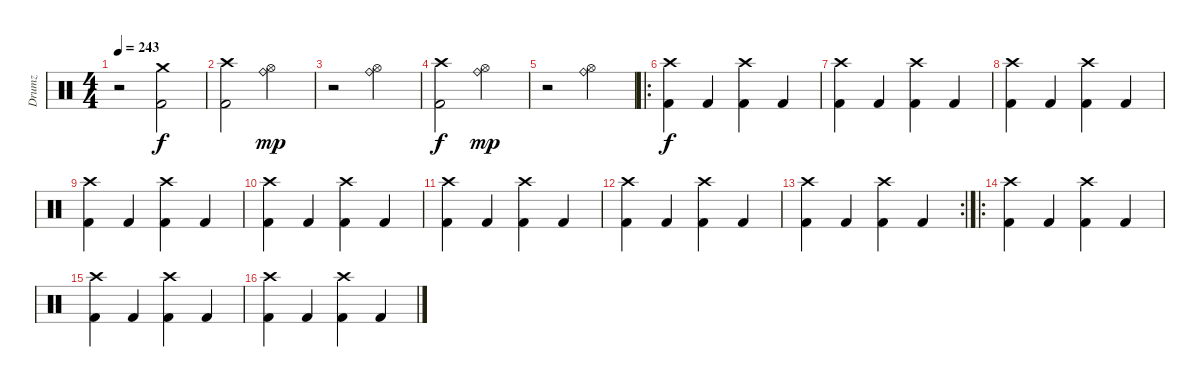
\track ("Drumz" "Drumz") {instrument percussion}
\staff {score}
\articulation defaults
\ts (4 4)
\tempo 243
\clef neutral
\ks c
r.2{dy mp} ("Crash medium (hit)" "Kick (hit) 2").2{dy f} |
("Crash high (hit)" "Kick (hit) 2").2 ("Ride (bell)" "Hi-Hat (open)").2{dy mp} |
r.2 ("Ride (bell)" "Hi-Hat (open)").2 |
("Crash high (hit)" "Kick (hit) 2").2{dy f} ("Ride (bell)" "Hi-Hat (open)").2{dy mp} |
r.2 ("Ride (bell)" "Hi-Hat (open)").2 |
\ro
("Crash high (hit)" "Kick (hit) 2").4{dy f} "Kick (hit) 2".4 ("Crash high (hit)" "Kick (hit) 2").4 "Kick (hit) 2".4 |
("Crash high (hit)" "Kick (hit) 2").4 "Kick (hit) 2".4 ("Crash high (hit)" "Kick (hit) 2").4 "Kick (hit) 2".4 |
("Crash high (hit)" "Kick (hit) 2").4 "Kick (hit) 2".4 ("Crash high (hit)" "Kick (hit) 2").4 "Kick (hit) 2".4 |
("Crash high (hit)" "Kick (hit) 2").4 "Kick (hit) 2".4 ("Crash high (hit)" "Kick (hit) 2").4 "Kick (hit) 2".4 |
("Crash high (hit)" "Kick (hit) 2").4 "Kick (hit) 2".4 ("Crash high (hit)" "Kick (hit) 2").4 "Kick (hit) 2".4 |
("Crash high (hit)" "Kick (hit) 2").4 "Kick (hit) 2".4 ("Crash high (hit)" "Kick (hit) 2").4 "Kick (hit) 2".4 |
("Crash high (hit)" "Kick (hit) 2").4 "Kick (hit) 2".4 ("Crash high (hit)" "Kick (hit) 2").4 "Kick (hit) 2".4 |
\rc 2
("Crash high (hit)" "Kick (hit) 2").4 "Kick (hit) 2".4 ("Crash high (hit)" "Kick (hit) 2").4 "Kick (hit) 2".4 |
\ro
("Crash high (hit)" "Kick (hit) 2").4 "Kick (hit) 2".4 ("Crash high (hit)" "Kick (hit) 2").4 "Kick (hit) 2".4 |
("Crash high (hit)" "Kick (hit) 2").4 "Kick (hit) 2".4 ("Crash high (hit)" "Kick (hit) 2").4 "Kick (hit) 2".4 |
("Crash high (hit)" "Kick (hit) 2").4 "Kick (hit) 2".4 ("Crash high (hit)" "Kick (hit) 2").4 "Kick (hit) 2".4
